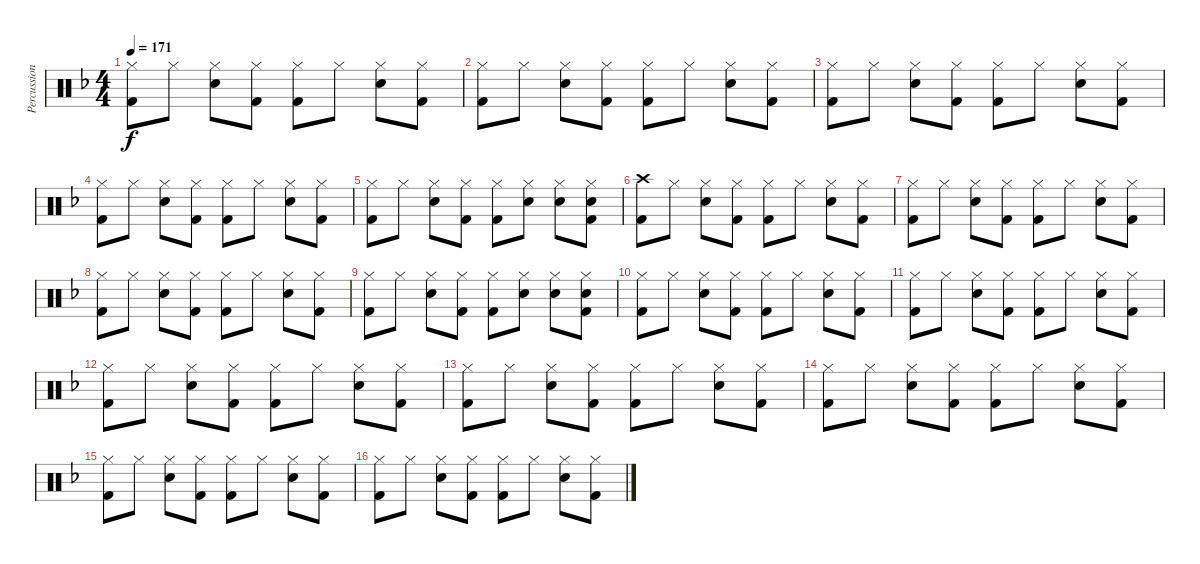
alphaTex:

\track ("Percussion" "Percussion") {instrument percussion}
\staff {score}
\articulation defaults
\ts (4 4)
\tempo 171
\clef neutral
\ks f
("Hi-Hat (closed)" "Kick (hit) 2").8{dy f} "Hi-Hat (closed)".8 ("Hi-Hat (closed)" "Snare (hit) 2").8 ("Hi-Hat (closed)" "Kick (hit) 2").8 ("Hi-Hat (closed)" "Kick (hit) 2").8 "Hi-Hat (closed)".8 ("Hi-Hat (closed)" "Snare (hit) 2").8 ("Hi-Hat (closed)" "Kick (hit) 2").8 |
("Hi-Hat (closed)" "Kick (hit) 2").8 "Hi-Hat (closed)".8 ("Hi-Hat (closed)" "Snare (hit) 2").8 ("Hi-Hat (closed)" "Kick (hit) 2").8 ("Hi-Hat (closed)" "Kick (hit) 2").8 "Hi-Hat (closed)".8 ("Hi-Hat (closed)" "Snare (hit) 2").8 ("Hi-Hat (closed)" "Kick (hit) 2").8 |
("Hi-Hat (closed)" "Kick (hit) 2").8 "Hi-Hat (closed)".8 ("Hi-Hat (closed)" "Snare (hit) 2").8 ("Hi-Hat (closed)" "Kick (hit) 2").8 ("Hi-Hat (closed)" "Kick (hit) 2").8 "Hi-Hat (closed)".8 ("Hi-Hat (closed)" "Snare (hit) 2").8 ("Hi-Hat (closed)" "Kick (hit) 2").8 |
("Hi-Hat (closed)" "Kick (hit) 2").8 "Hi-Hat (closed)".8 ("Hi-Hat (closed)" "Snare (hit) 2").8 ("Hi-Hat (closed)" "Kick (hit) 2").8 ("Hi-Hat (closed)" "Kick (hit) 2").8 "Hi-Hat (closed)".8 ("Hi-Hat (closed)" "Snare (hit) 2").8 ("Hi-Hat (closed)" "Kick (hit) 2").8 |
("Hi-Hat (closed)" "Kick (hit) 2").8 "Hi-Hat (closed)".8 ("Hi-Hat (closed)" "Snare (hit) 2").8 ("Hi-Hat (closed)" "Kick (hit) 2").8 ("Hi-Hat (closed)" "Kick (hit) 2").8 ("Hi-Hat (closed)" "Snare (hit) 2").8 ("Hi-Hat (closed)" "Snare (hit) 2").8 ("Hi-Hat (closed)" "Snare (hit) 2" "Kick (hit) 2").8 |
("Crash high (hit)" "Kick (hit) 2").8 "Hi-Hat (closed)".8 ("Hi-Hat (closed)" "Snare (hit) 2").8 ("Hi-Hat (closed)" "Kick (hit) 2").8 ("Hi-Hat (closed)" "Kick (hit) 2").8 "Hi-Hat (closed)".8 ("Hi-Hat (closed)" "Snare (hit) 2").8 ("Hi-Hat (closed)" "Kick (hit) 2").8 |
("Hi-Hat (closed)" "Kick (hit) 2").8 "Hi-Hat (closed)".8 ("Hi-Hat (closed)" "Snare (hit) 2").8 ("Hi-Hat (closed)" "Kick (hit) 2").8 ("Hi-Hat (closed)" "Kick (hit) 2").8 "Hi-Hat (closed)".8 ("Hi-Hat (closed)" "Snare (hit) 2").8 ("Hi-Hat (closed)" "Kick (hit) 2").8 |
("Hi-Hat (closed)" "Kick (hit) 2").8 "Hi-Hat (closed)".8 ("Hi-Hat (closed)" "Snare (hit) 2").8 ("Hi-Hat (closed)" "Kick (hit) 2").8 ("Hi-Hat (closed)" "Kick (hit) 2").8 "Hi-Hat (closed)".8 ("Hi-Hat (closed)" "Snare (hit) 2").8 ("Hi-Hat (closed)" "Kick (hit) 2").8 |
("Hi-Hat (closed)" "Kick (hit) 2").8 "Hi-Hat (closed)".8 ("Hi-Hat (closed)" "Snare (hit) 2").8 ("Hi-Hat (closed)" "Kick (hit) 2").8 ("Hi-Hat (closed)" "Kick (hit) 2").8 ("Hi-Hat (closed)" "Snare (hit) 2").8 ("Hi-Hat (closed)" "Snare (hit) 2").8 ("Hi-Hat (closed)" "Snare (hit) 2" "Kick (hit) 2").8 |
("Hi-Hat (closed)" "Kick (hit) 2").8 "Hi-Hat (closed)".8 ("Hi-Hat (closed)" "Snare (hit) 2").8 ("Hi-Hat (closed)" "Kick (hit) 2").8 ("Hi-Hat (closed)" "Kick (hit) 2").8 "Hi-Hat (closed)".8 ("Hi-Hat (closed)" "Snare (hit) 2").8 ("Hi-Hat (closed)" "Kick (hit) 2").8 |
("Hi-Hat (closed)" "Kick (hit) 2").8 "Hi-Hat (closed)".8 ("Hi-Hat (closed)" "Snare (hit) 2").8 ("Hi-Hat (closed)" "Kick (hit) 2").8 ("Hi-Hat (closed)" "Kick (hit) 2").8 "Hi-Hat (closed)".8 ("Hi-Hat (closed)" "Snare (hit) 2").8 ("Hi-Hat (closed)" "Kick (hit) 2").8 |
("Hi-Hat (closed)" "Kick (hit) 2").8 "Hi-Hat (closed)".8 ("Hi-Hat (closed)" "Snare (hit) 2").8 ("Hi-Hat (closed)" "Kick (hit) 2").8 ("Hi-Hat (closed)" "Kick (hit) 2").8 "Hi-Hat (closed)".8 ("Hi-Hat (closed)" "Snare (hit) 2").8 ("Hi-Hat (closed)" "Kick (hit) 2").8 |
("Hi-Hat (closed)" "Kick (hit) 2").8 "Hi-Hat (closed)".8 ("Hi-Hat (closed)" "Snare (hit) 2").8 ("Hi-Hat (closed)" "Kick (hit) 2").8 ("Hi-Hat (closed)" "Kick (hit) 2").8 "Hi-Hat (closed)".8 ("Hi-Hat (closed)" "Snare (hit) 2").8 ("Hi-Hat (closed)" "Kick (hit) 2").8 |
("Hi-Hat (closed)" "Kick (hit) 2").8 "Hi-Hat (closed)".8 ("Hi-Hat (closed)" "Snare (hit) 2").8 ("Hi-Hat (closed)" "Kick (hit) 2").8 ("Hi-Hat (closed)" "Kick (hit) 2").8 "Hi-Hat (closed)".8 ("Hi-Hat (closed)" "Snare (hit) 2").8 ("Hi-Hat (closed)" "Kick (hit) 2").8 |
("Hi-Hat (closed)" "Kick (hit) 2").8 "Hi-Hat (closed)".8 ("Hi-Hat (closed)" "Snare (hit) 2").8 ("Hi-Hat (closed)" "Kick (hit) 2").8 ("Hi-Hat (closed)" "Kick (hit) 2").8 "Hi-Hat (closed)".8 ("Hi-Hat (closed)" "Snare (hit) 2").8 ("Hi-Hat (closed)" "Kick (hit) 2").8 |
("Hi-Hat (closed)" "Kick (hit) 2").8 "Hi-Hat (closed)".8 ("Hi-Hat (closed)" "Snare (hit) 2").8 ("Hi-Hat (closed)" "Kick (hit) 2").8 ("Hi-Hat (closed)" "Kick (hit) 2").8 "Hi-Hat (closed)".8 ("Hi-Hat (closed)" "Snare (hit) 2").8 ("Hi-Hat (closed)" "Kick (hit) 2").8
